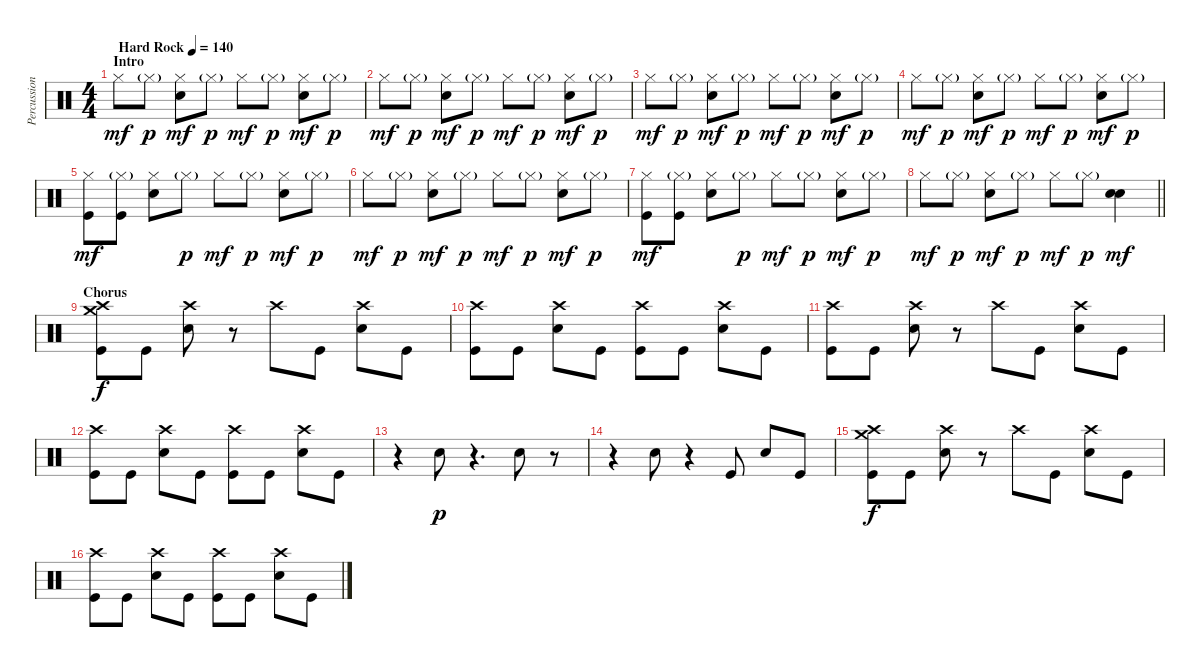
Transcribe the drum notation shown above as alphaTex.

\track ("Percussion" "Percussion") {instrument percussion}
\staff {score}
\articulation defaults
\ts (4 4)
\section ("" "Intro")
\tempo (140 "Hard Rock")
\clef neutral
\ks c "Hi-Hat (closed)".8{dy mf} "Hi-Hat (closed)"{g}.8{dy p}
("Hi-Hat (closed)" "Snare (hit) 2").8{dy mf} "Hi-Hat (closed)"{g}.8{dy p} "Hi-Hat (closed)".8{dy mf} "Hi-Hat (closed)"{g}.8{dy p} ("Hi-Hat (closed)" "Snare (hit) 2").8{dy mf} "Hi-Hat (closed)"{g}.8{dy p} |
"Hi-Hat (closed)".8{dy mf} "Hi-Hat (closed)"{g}.8{dy p} ("Hi-Hat (closed)" "Snare (hit) 2").8{dy mf} "Hi-Hat (closed)"{g}.8{dy p} "Hi-Hat (closed)".8{dy mf} "Hi-Hat (closed)"{g}.8{dy p} ("Hi-Hat (closed)" "Snare (hit) 2").8{dy mf} "Hi-Hat (closed)"{g}.8{dy p} |
"Hi-Hat (closed)".8{dy mf} "Hi-Hat (closed)"{g}.8{dy p} ("Hi-Hat (closed)" "Snare (hit) 2").8{dy mf} "Hi-Hat (closed)"{g}.8{dy p} "Hi-Hat (closed)".8{dy mf} "Hi-Hat (closed)"{g}.8{dy p} ("Hi-Hat (closed)" "Snare (hit) 2").8{dy mf} "Hi-Hat (closed)"{g}.8{dy p} |
"Hi-Hat (closed)".8{dy mf} "Hi-Hat (closed)"{g}.8{dy p} ("Hi-Hat (closed)" "Snare (hit) 2").8{dy mf} "Hi-Hat (closed)"{g}.8{dy p} "Hi-Hat (closed)".8{dy mf} "Hi-Hat (closed)"{g}.8{dy p} ("Hi-Hat (closed)" "Snare (hit) 2").8{dy mf} "Hi-Hat (closed)"{g}.8{dy p} |
("Hi-Hat (closed)" "Kick (hit)").8{dy mf} ("Hi-Hat (closed)"{g} "Kick (hit)").8 ("Hi-Hat (closed)" "Snare (hit) 2").8 "Hi-Hat (closed)"{g}.8{dy p} "Hi-Hat (closed)".8{dy mf} "Hi-Hat (closed)"{g}.8{dy p} ("Hi-Hat (closed)" "Snare (hit) 2").8{dy mf} "Hi-Hat (closed)"{g}.8{dy p} |
"Hi-Hat (closed)".8{dy mf} "Hi-Hat (closed)"{g}.8{dy p} ("Hi-Hat (closed)" "Snare (hit) 2").8{dy mf} "Hi-Hat (closed)"{g}.8{dy p} "Hi-Hat (closed)".8{dy mf} "Hi-Hat (closed)"{g}.8{dy p} ("Hi-Hat (closed)" "Snare (hit) 2").8{dy mf} "Hi-Hat (closed)"{g}.8{dy p} |
("Hi-Hat (closed)" "Kick (hit)").8{dy mf} ("Hi-Hat (closed)"{g} "Kick (hit)").8 ("Hi-Hat (closed)" "Snare (hit) 2").8 "Hi-Hat (closed)"{g}.8{dy p} "Hi-Hat (closed)".8{dy mf} "Hi-Hat (closed)"{g}.8{dy p} ("Hi-Hat (closed)" "Snare (hit) 2").8{dy mf} "Hi-Hat (closed)"{g}.8{dy p} |
\barLineRight lightlight "Hi-Hat (closed)".8{dy mf} "Hi-Hat (closed)"{g}.8{dy p}
("Hi-Hat (closed)" "Snare (hit) 2").8{dy mf} "Hi-Hat (closed)"{g}.8{dy p} "Hi-Hat (closed)".8{dy mf} "Hi-Hat (closed)"{g}.8{dy p} ("Snare (hit) 2" "Snare (hit) 2").4{dy mf} |
\section ("" "Chorus")
("Crash medium (hit)" "Crash high (hit)" "Kick (hit)").8{dy f} "Kick (hit)".8 ("Crash high (hit)" "Snare (hit) 2").8 r.8 "Crash high (hit)".8 "Kick (hit)".8 ("Crash high (hit)" "Snare (hit) 2").8 "Kick (hit)".8 |
("Crash high (hit)" "Kick (hit)").8 "Kick (hit)".8 ("Crash high (hit)" "Snare (hit) 2").8 "Kick (hit)".8 ("Crash high (hit)" "Kick (hit)").8 "Kick (hit)".8 ("Crash high (hit)" "Snare (hit) 2").8 "Kick (hit)".8 |
("Crash high (hit)" "Kick (hit)").8 "Kick (hit)".8 ("Crash high (hit)" "Snare (hit) 2").8 r.8 "Crash high (hit)".8 "Kick (hit)".8 ("Crash high (hit)" "Snare (hit) 2").8 "Kick (hit)".8 |
("Crash high (hit)" "Kick (hit)").8 "Kick (hit)".8 ("Crash high (hit)" "Snare (hit) 2").8 "Kick (hit)".8 ("Crash high (hit)" "Kick (hit)").8 "Kick (hit)".8 ("Crash high (hit)" "Snare (hit) 2").8 "Kick (hit)".8 |
r.4 "Snare (hit) 2".8{dy p} r.4{d} "Snare (hit) 2".8 r.8 |
r.4 "Snare (hit) 2".8 r.4 "Kick (hit)".8 "Snare (hit) 2".8 "Kick (hit)".8 |
("Crash medium (hit)" "Crash high (hit)" "Kick (hit)").8{dy f} "Kick (hit)".8 ("Crash high (hit)" "Snare (hit) 2").8 r.8 "Crash high (hit)".8 "Kick (hit)".8 ("Crash high (hit)" "Snare (hit) 2").8 "Kick (hit)".8 |
("Crash high (hit)" "Kick (hit)").8 "Kick (hit)".8 ("Crash high (hit)" "Snare (hit) 2").8 "Kick (hit)".8 ("Crash high (hit)" "Kick (hit)").8 "Kick (hit)".8 ("Crash high (hit)" "Snare (hit) 2").8 "Kick (hit)".8
